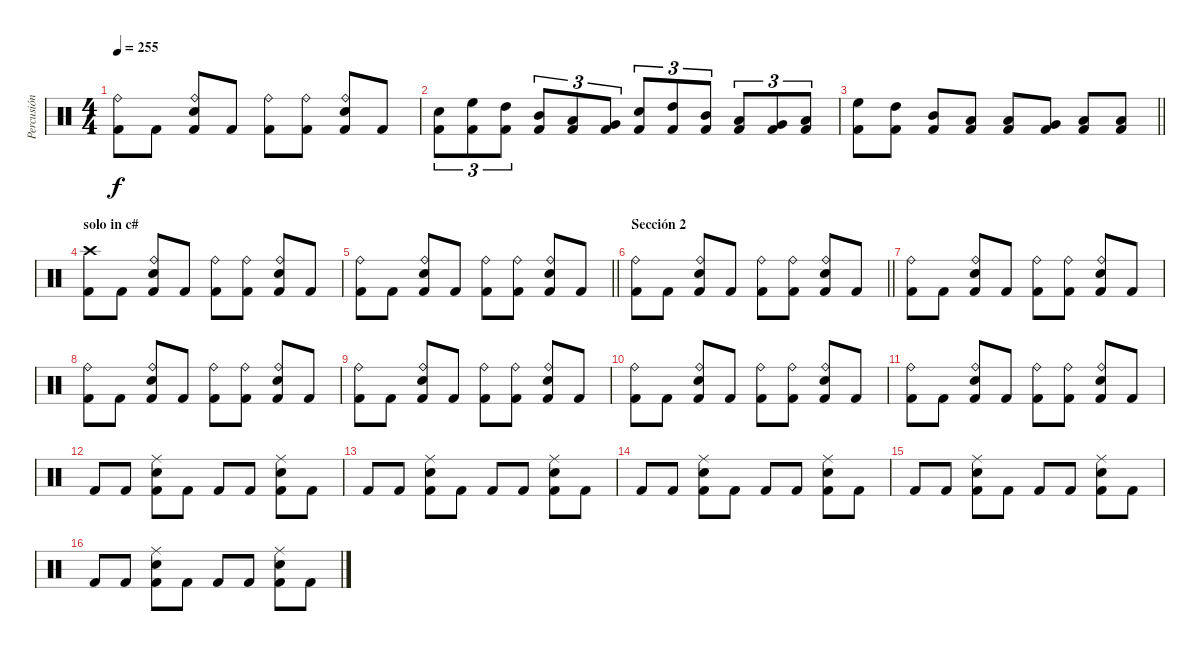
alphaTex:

\track ("Percusión" "Percusión") {instrument percussion}
\staff {score}
\articulation defaults
\ts (4 4)
\tempo 255
\clef neutral
\ks c
("Kick (hit) 2" "Ride (bell)").8{dy f} "Kick (hit) 2".8 ("Kick (hit) 2" "Electric Snare (hit)" "Ride (bell)").8 "Kick (hit) 2".8 ("Kick (hit) 2" "Ride (bell)").8 ("Kick (hit) 2" "Ride (bell)").8 ("Kick (hit) 2" "Electric Snare (hit)" "Ride (bell)").8 "Kick (hit) 2".8 |
("Kick (hit) 2" "Electric Snare (hit)").8{tu (3 2)} ("Kick (hit) 2" "High Floor Tom (hit)").8{tu (3 2)} ("Kick (hit) 2" "High Tom (hit)").8{tu (3 2)} ("Kick (hit) 2" "Mid Tom (hit)").8{tu (3 2)} ("Kick (hit) 2" "Low Tom (hit)").8{tu (3 2)} ("Kick (hit) 2" "Very Low Tom (hit)").8{tu (3 2)} ("Kick (hit) 2" "Electric Snare (hit)").8{tu (3 2)} ("Kick (hit) 2" "High Tom (hit)").8{tu (3 2)} ("Kick (hit) 2" "Mid Tom (hit)").8{tu (3 2)} ("Kick (hit) 2" "Low Tom (hit)").8{tu (3 2)} ("Kick (hit) 2" "Very Low Tom (hit)").8{tu (3 2)} ("Kick (hit) 2" "Low Floor Tom (hit)").8{tu (3 2)} |
\barLineRight lightlight
("Kick (hit) 2" "High Floor Tom (hit)").8 ("Kick (hit) 2" "High Tom (hit)").8 ("Kick (hit) 2" "Mid Tom (hit)").8 ("Kick (hit) 2" "Low Tom (hit)").8 ("Kick (hit) 2" "Low Tom (hit)").8 ("Kick (hit) 2" "Very Low Tom (hit)").8 ("Kick (hit) 2" "Low Floor Tom (hit)").8 ("Kick (hit) 2" "Low Floor Tom (hit)").8 |
\section ("" "solo in c#")
("Kick (hit) 2" "Crash high (hit)").8 "Kick (hit) 2".8 ("Kick (hit) 2" "Electric Snare (hit)" "Ride (bell)").8 "Kick (hit) 2".8 ("Kick (hit) 2" "Ride (bell)").8 ("Kick (hit) 2" "Ride (bell)").8 ("Kick (hit) 2" "Electric Snare (hit)" "Ride (bell)").8 "Kick (hit) 2".8 |
\barLineRight lightlight
("Kick (hit) 2" "Ride (bell)").8 "Kick (hit) 2".8 ("Kick (hit) 2" "Electric Snare (hit)" "Ride (bell)").8 "Kick (hit) 2".8 ("Kick (hit) 2" "Ride (bell)").8 ("Kick (hit) 2" "Ride (bell)").8 ("Kick (hit) 2" "Electric Snare (hit)" "Ride (bell)").8 "Kick (hit) 2".8 |
\section ("" "Sección 2")
\barLineRight lightlight
("Kick (hit) 2" "Ride (bell)").8 "Kick (hit) 2".8 ("Kick (hit) 2" "Electric Snare (hit)" "Ride (bell)").8 "Kick (hit) 2".8 ("Kick (hit) 2" "Ride (bell)").8 ("Kick (hit) 2" "Ride (bell)").8 ("Kick (hit) 2" "Electric Snare (hit)" "Ride (bell)").8 "Kick (hit) 2".8 |
\section ("" "")
("Kick (hit) 2" "Ride (bell)").8 "Kick (hit) 2".8 ("Kick (hit) 2" "Electric Snare (hit)" "Ride (bell)").8 "Kick (hit) 2".8 ("Kick (hit) 2" "Ride (bell)").8 ("Kick (hit) 2" "Ride (bell)").8 ("Kick (hit) 2" "Electric Snare (hit)" "Ride (bell)").8 "Kick (hit) 2".8 |
("Kick (hit) 2" "Ride (bell)").8 "Kick (hit) 2".8 ("Kick (hit) 2" "Electric Snare (hit)" "Ride (bell)").8 "Kick (hit) 2".8 ("Kick (hit) 2" "Ride (bell)").8 ("Kick (hit) 2" "Ride (bell)").8 ("Kick (hit) 2" "Electric Snare (hit)" "Ride (bell)").8 "Kick (hit) 2".8 |
("Kick (hit) 2" "Ride (bell)").8 "Kick (hit) 2".8 ("Kick (hit) 2" "Electric Snare (hit)" "Ride (bell)").8 "Kick (hit) 2".8 ("Kick (hit) 2" "Ride (bell)").8 ("Kick (hit) 2" "Ride (bell)").8 ("Kick (hit) 2" "Electric Snare (hit)" "Ride (bell)").8 "Kick (hit) 2".8 |
("Kick (hit) 2" "Ride (bell)").8 "Kick (hit) 2".8 ("Kick (hit) 2" "Electric Snare (hit)" "Ride (bell)").8 "Kick (hit) 2".8 ("Kick (hit) 2" "Ride (bell)").8 ("Kick (hit) 2" "Ride (bell)").8 ("Kick (hit) 2" "Electric Snare (hit)" "Ride (bell)").8 "Kick (hit) 2".8 |
("Kick (hit) 2" "Ride (bell)").8 "Kick (hit) 2".8 ("Kick (hit) 2" "Electric Snare (hit)" "Ride (bell)").8 "Kick (hit) 2".8 ("Kick (hit) 2" "Ride (bell)").8 ("Kick (hit) 2" "Ride (bell)").8 ("Kick (hit) 2" "Electric Snare (hit)" "Ride (bell)").8 "Kick (hit) 2".8 |
"Kick (hit) 2".8 "Kick (hit) 2".8 ("Kick (hit) 2" "Electric Snare (hit)" "Ride (middle)").8 "Kick (hit) 2".8 "Kick (hit) 2".8 "Kick (hit) 2".8 ("Kick (hit) 2" "Electric Snare (hit)" "Ride (middle)").8 "Kick (hit) 2".8 |
"Kick (hit) 2".8 "Kick (hit) 2".8 ("Kick (hit) 2" "Electric Snare (hit)" "Ride (middle)").8 "Kick (hit) 2".8 "Kick (hit) 2".8 "Kick (hit) 2".8 ("Kick (hit) 2" "Electric Snare (hit)" "Ride (middle)").8 "Kick (hit) 2".8 |
"Kick (hit) 2".8 "Kick (hit) 2".8 ("Kick (hit) 2" "Electric Snare (hit)" "Ride (middle)").8 "Kick (hit) 2".8 "Kick (hit) 2".8 "Kick (hit) 2".8 ("Kick (hit) 2" "Electric Snare (hit)" "Ride (middle)").8 "Kick (hit) 2".8 |
"Kick (hit) 2".8 "Kick (hit) 2".8 ("Kick (hit) 2" "Electric Snare (hit)" "Ride (middle)").8 "Kick (hit) 2".8 "Kick (hit) 2".8 "Kick (hit) 2".8 ("Kick (hit) 2" "Electric Snare (hit)" "Ride (middle)").8 "Kick (hit) 2".8 |
"Kick (hit) 2".8 "Kick (hit) 2".8 ("Kick (hit) 2" "Electric Snare (hit)" "Ride (middle)").8 "Kick (hit) 2".8 "Kick (hit) 2".8 "Kick (hit) 2".8 ("Kick (hit) 2" "Electric Snare (hit)" "Ride (middle)").8 "Kick (hit) 2".8
